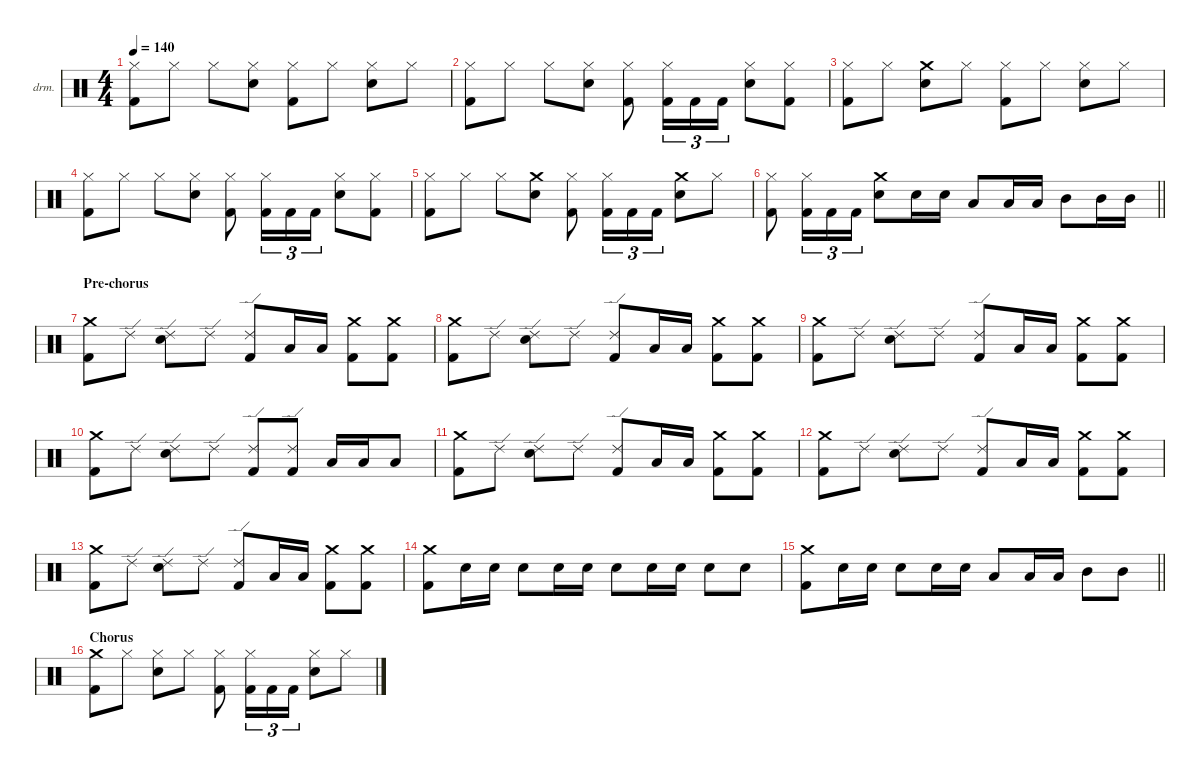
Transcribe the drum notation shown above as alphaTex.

\defaultSystemsLayout 4
\hideDynamics
\bracketExtendMode nobrackets
\firstSystemTrackNameOrientation horizontal
\otherSystemsTrackNameOrientation horizontal
\track ("Drums" "drm.") {instrument percussion}
\staff {score}
\articulation defaults
\ts (4 4)
\tempo 140
\clef neutral
\ks c
("Hi-Hat (closed)" "Kick (hit) 2").8{dy f} "Hi-Hat (closed)".8 "Hi-Hat (closed)".8 ("Snare (hit) 2" "Hi-Hat (closed)").8 ("Hi-Hat (closed)" "Kick (hit) 2").8 "Hi-Hat (closed)".8 ("Snare (hit) 2" "Hi-Hat (closed)").8 "Hi-Hat (closed)".8 |
("Kick (hit) 2" "Hi-Hat (closed)").8 "Hi-Hat (closed)".8 "Hi-Hat (closed)".8 ("Snare (hit) 2" "Hi-Hat (closed)").8 ("Kick (hit) 2" "Hi-Hat (closed)").8 ("Kick (hit) 2" "Hi-Hat (closed)").16{tu (3 2)} "Kick (hit) 2".16{tu (3 2)} "Kick (hit) 2".16{tu (3 2)} ("Snare (hit) 2" "Hi-Hat (closed)").8 ("Kick (hit) 2" "Hi-Hat (closed)").8 |
("Hi-Hat (closed)" "Kick (hit) 2").8 "Hi-Hat (closed)".8 ("Crash medium (hit)" "Snare (hit) 2").8 "Hi-Hat (closed)".8 ("Hi-Hat (closed)" "Kick (hit) 2").8 "Hi-Hat (closed)".8 ("Snare (hit) 2" "Hi-Hat (closed)").8 "Hi-Hat (closed)".8 |
("Kick (hit) 2" "Hi-Hat (closed)").8 "Hi-Hat (closed)".8 "Hi-Hat (closed)".8 ("Snare (hit) 2" "Hi-Hat (closed)").8 ("Kick (hit) 2" "Hi-Hat (closed)").8 ("Kick (hit) 2" "Hi-Hat (closed)").16{tu (3 2)} "Kick (hit) 2".16{tu (3 2)} "Kick (hit) 2".16{tu (3 2)} ("Snare (hit) 2" "Hi-Hat (closed)").8 ("Kick (hit) 2" "Hi-Hat (closed)").8 |
("Kick (hit) 2" "Hi-Hat (closed)").8 "Hi-Hat (closed)".8 "Hi-Hat (closed)".8 ("Crash medium (hit)" "Snare (hit) 2").8 ("Kick (hit) 2" "Hi-Hat (closed)").8 ("Kick (hit) 2" "Hi-Hat (closed)").16{tu (3 2)} "Kick (hit) 2".16{tu (3 2)} "Kick (hit) 2".16{tu (3 2)} ("Crash medium (hit)" "Snare (hit) 2").8 "Hi-Hat (closed)".8 |
\barLineRight lightlight
("Hi-Hat (closed)" "Kick (hit) 2").8 ("Hi-Hat (closed)" "Kick (hit) 2").16{tu (3 2)} "Kick (hit) 2".16{tu (3 2)} "Kick (hit) 2".16{tu (3 2)} ("Snare (hit) 2" "Crash medium (hit)").8 "Snare (hit) 2".16 "Snare (hit) 2".16 "Low Tom (hit)".8 "Low Tom (hit)".16 "Low Tom (hit)".16 "Mid Tom (hit)".8 "Mid Tom (hit)".16 "Mid Tom (hit)".16 |
\section ("" "Pre-chorus")
("Crash medium (hit)" "Kick (hit) 2").8 "Ride (edge) 2".8 ("Snare (hit) 2" "Ride (edge) 2").8 "Ride (edge) 2".8 ("Ride (edge) 2" "Kick (hit) 2").8 "Low Tom (hit)".16 "Low Tom (hit)".16 ("Crash medium (hit)" "Kick (hit) 2").8 ("Crash medium (hit)" "Kick (hit) 2").8 |
("Crash medium (hit)" "Kick (hit) 2").8 "Ride (edge) 2".8 ("Snare (hit) 2" "Ride (edge) 2").8 "Ride (edge) 2".8 ("Ride (edge) 2" "Kick (hit) 2").8 "Low Tom (hit)".16 "Low Tom (hit)".16 ("Crash medium (hit)" "Kick (hit) 2").8 ("Crash medium (hit)" "Kick (hit) 2").8 |
("Crash medium (hit)" "Kick (hit) 2").8 "Ride (edge) 2".8 ("Snare (hit) 2" "Ride (edge) 2").8 "Ride (edge) 2".8 ("Ride (edge) 2" "Kick (hit) 2").8 "Low Tom (hit)".16 "Low Tom (hit)".16 ("Crash medium (hit)" "Kick (hit) 2").8 ("Crash medium (hit)" "Kick (hit) 2").8 |
("Crash medium (hit)" "Kick (hit) 2").8 "Ride (edge) 2".8 ("Snare (hit) 2" "Ride (edge) 2").8 "Ride (edge) 2".8 ("Kick (hit) 2" "Ride (edge) 2").8 ("Ride (edge) 2" "Kick (hit) 2").8 "Low Tom (hit)".16 "Low Tom (hit)".16 "Low Tom (hit)".8 |
("Crash medium (hit)" "Kick (hit) 2").8 "Ride (edge) 2".8 ("Snare (hit) 2" "Ride (edge) 2").8 "Ride (edge) 2".8 ("Ride (edge) 2" "Kick (hit) 2").8 "Low Tom (hit)".16 "Low Tom (hit)".16 ("Crash medium (hit)" "Kick (hit) 2").8 ("Crash medium (hit)" "Kick (hit) 2").8 |
("Crash medium (hit)" "Kick (hit) 2").8 "Ride (edge) 2".8 ("Snare (hit) 2" "Ride (edge) 2").8 "Ride (edge) 2".8 ("Ride (edge) 2" "Kick (hit) 2").8 "Low Tom (hit)".16 "Low Tom (hit)".16 ("Crash medium (hit)" "Kick (hit) 2").8 ("Crash medium (hit)" "Kick (hit) 2").8 |
("Crash medium (hit)" "Kick (hit) 2").8 "Ride (edge) 2".8 ("Snare (hit) 2" "Ride (edge) 2").8 "Ride (edge) 2".8 ("Ride (edge) 2" "Kick (hit) 2").8 "Low Tom (hit)".16 "Low Tom (hit)".16 ("Crash medium (hit)" "Kick (hit) 2").8 ("Crash medium (hit)" "Kick (hit) 2").8 |
("Kick (hit) 2" "Crash medium (hit)").8 "Snare (hit) 2".16 "Snare (hit) 2".16 "Snare (hit) 2".8 "Snare (hit) 2".16 "Snare (hit) 2".16 "Snare (hit) 2".8 "Snare (hit) 2".16 "Snare (hit) 2".16 "Snare (hit) 2".8 "Snare (hit) 2".8 |
\barLineRight lightlight
("Crash medium (hit)" "Kick (hit) 2").8 "Snare (hit) 2".16 "Snare (hit) 2".16 "Snare (hit) 2".8 "Snare (hit) 2".16 "Snare (hit) 2".16 "Low Tom (hit)".8 "Low Tom (hit)".16 "Low Tom (hit)".16 "Mid Tom (hit)".8 "Mid Tom (hit)".8 |
\section ("" "Chorus")
("Crash medium (hit)" "Kick (hit) 2").8 "Hi-Hat (closed)".8 ("Snare (hit) 2" "Hi-Hat (closed)").8 "Hi-Hat (closed)".8 ("Kick (hit) 2" "Hi-Hat (closed)").8 ("Kick (hit) 2" "Hi-Hat (closed)").16{tu (3 2)} "Kick (hit) 2".16{tu (3 2)} "Kick (hit) 2".16{tu (3 2)} ("Snare (hit) 2" "Hi-Hat (closed)").8 "Hi-Hat (closed)".8
